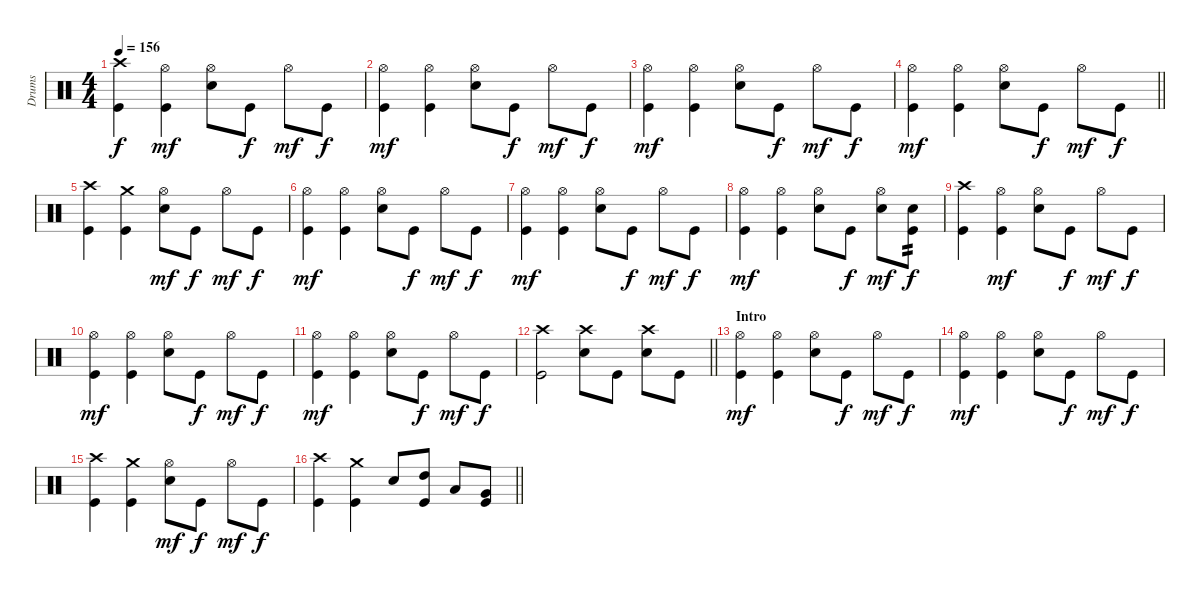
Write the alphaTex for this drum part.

\track ("Drums" "Drums") {instrument percussion}
\staff {score}
\articulation defaults
\ts (4 4)
\tempo 156
\clef neutral
\ks c
("Kick (hit)" "Crash high (hit)").4{dy f} ("Kick (hit)" "Hi-Hat (open)").4{dy mf} ("Snare (hit) 2" "Hi-Hat (open)").8 "Kick (hit)".8{dy f} "Hi-Hat (open)".8{dy mf} "Kick (hit)".8{dy f} |
("Kick (hit)" "Hi-Hat (open)").4{dy mf} ("Kick (hit)" "Hi-Hat (open)").4 ("Snare (hit) 2" "Hi-Hat (open)").8 "Kick (hit)".8{dy f} "Hi-Hat (open)".8{dy mf} "Kick (hit)".8{dy f} |
("Kick (hit)" "Hi-Hat (open)").4{dy mf} ("Kick (hit)" "Hi-Hat (open)").4 ("Snare (hit) 2" "Hi-Hat (open)").8 "Kick (hit)".8{dy f} "Hi-Hat (open)".8{dy mf} "Kick (hit)".8{dy f} |
\barLineRight lightlight
("Kick (hit)" "Hi-Hat (open)").4{dy mf} ("Kick (hit)" "Hi-Hat (open)").4 ("Snare (hit) 2" "Hi-Hat (open)").8 "Kick (hit)".8{dy f} "Hi-Hat (open)".8{dy mf} "Kick (hit)".8{dy f} |
("Kick (hit)" "Crash high (hit)").4 ("Kick (hit)" "Crash medium (hit)").4 ("Snare (hit) 2" "Hi-Hat (open)").8{dy mf} "Kick (hit)".8{dy f} "Hi-Hat (open)".8{dy mf} "Kick (hit)".8{dy f} |
("Kick (hit)" "Hi-Hat (open)").4{dy mf} ("Kick (hit)" "Hi-Hat (open)").4 ("Snare (hit) 2" "Hi-Hat (open)").8 "Kick (hit)".8{dy f} "Hi-Hat (open)".8{dy mf} "Kick (hit)".8{dy f} |
("Kick (hit)" "Hi-Hat (open)").4{dy mf} ("Kick (hit)" "Hi-Hat (open)").4 ("Snare (hit) 2" "Hi-Hat (open)").8 "Kick (hit)".8{dy f} "Hi-Hat (open)".8{dy mf} "Kick (hit)".8{dy f} |
("Kick (hit)" "Hi-Hat (open)").4{dy mf} ("Kick (hit)" "Hi-Hat (open)").4 ("Snare (hit) 2" "Hi-Hat (open)").8 "Kick (hit)".8{dy f} ("Snare (hit) 2" "Hi-Hat (open)").8{dy mf} ("Kick (hit)" "Snare (hit) 2").8{tp 2 dy f} |
("Kick (hit)" "Crash high (hit)").4 ("Kick (hit)" "Hi-Hat (open)").4{dy mf} ("Snare (hit) 2" "Hi-Hat (open)").8 "Kick (hit)".8{dy f} "Hi-Hat (open)".8{dy mf} "Kick (hit)".8{dy f} |
("Kick (hit)" "Hi-Hat (open)").4{dy mf} ("Kick (hit)" "Hi-Hat (open)").4 ("Snare (hit) 2" "Hi-Hat (open)").8 "Kick (hit)".8{dy f} "Hi-Hat (open)".8{dy mf} "Kick (hit)".8{dy f} |
("Kick (hit)" "Hi-Hat (open)").4{dy mf} ("Kick (hit)" "Hi-Hat (open)").4 ("Snare (hit) 2" "Hi-Hat (open)").8 "Kick (hit)".8{dy f} "Hi-Hat (open)".8{dy mf} "Kick (hit)".8{dy f} |
\barLineRight lightlight
("Kick (hit)" "Crash high (hit)").2 ("Snare (hit) 2" "Crash high (hit)").8 "Kick (hit)".8 ("Snare (hit) 2" "Crash high (hit)").8 "Kick (hit)".8 |
\section ("" "Intro")
("Kick (hit)" "Hi-Hat (open)").4{dy mf} ("Kick (hit)" "Hi-Hat (open)").4 ("Snare (hit) 2" "Hi-Hat (open)").8 "Kick (hit)".8{dy f} "Hi-Hat (open)".8{dy mf} "Kick (hit)".8{dy f} |
("Kick (hit)" "Hi-Hat (open)").4{dy mf} ("Kick (hit)" "Hi-Hat (open)").4 ("Snare (hit) 2" "Hi-Hat (open)").8 "Kick (hit)".8{dy f} "Hi-Hat (open)".8{dy mf} "Kick (hit)".8{dy f} |
("Kick (hit)" "Crash high (hit)").4 ("Kick (hit)" "Crash medium (hit)").4 ("Snare (hit) 2" "Hi-Hat (open)").8{dy mf} "Kick (hit)".8{dy f} "Hi-Hat (open)".8{dy mf} "Kick (hit)".8{dy f} |
\barLineRight lightlight
("Kick (hit)" "Crash high (hit)").4 ("Kick (hit)" "Crash medium (hit)").4 "Snare (hit) 2".8 ("High Tom (hit)" "Kick (hit)").8 "Low Tom (hit)".8 ("Kick (hit)" "Very Low Tom (hit)").8
